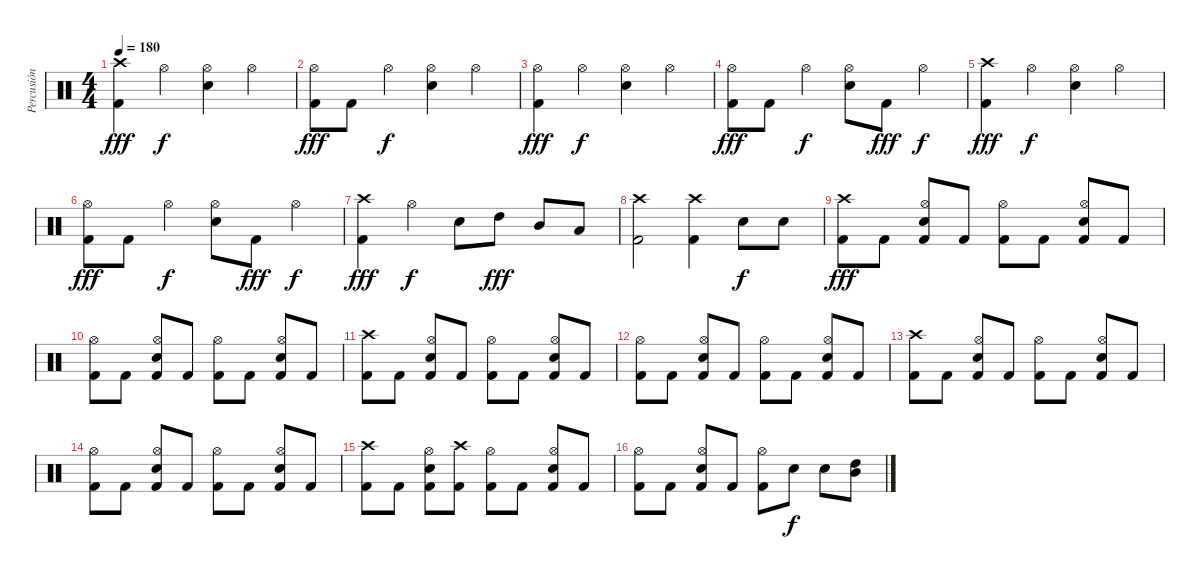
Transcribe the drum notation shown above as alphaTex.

\track ("Percusión" "Percusión") {instrument percussion}
\staff {score}
\articulation defaults
\ts (4 4)
\tempo 180
\clef neutral
\ks c
("Crash high (hit)" "Kick (hit) 2").4{dy fff} "Hi-Hat (open)".4{dy f} ("Hi-Hat (open)" "Electric Snare (hit)").4 "Hi-Hat (open)".4 |
("Hi-Hat (open)" "Kick (hit) 2").8{dy fff} "Kick (hit) 2".8 "Hi-Hat (open)".4{dy f} ("Hi-Hat (open)" "Electric Snare (hit)").4 "Hi-Hat (open)".4 |
("Hi-Hat (open)" "Kick (hit) 2").4{dy fff} "Hi-Hat (open)".4{dy f} ("Hi-Hat (open)" "Electric Snare (hit)").4 "Hi-Hat (open)".4 |
("Hi-Hat (open)" "Kick (hit) 2").8{dy fff} "Kick (hit) 2".8 "Hi-Hat (open)".4{dy f} ("Hi-Hat (open)" "Electric Snare (hit)").8 "Kick (hit) 2".8{dy fff} "Hi-Hat (open)".4{dy f} |
("Crash high (hit)" "Kick (hit) 2").4{dy fff} "Hi-Hat (open)".4{dy f} ("Hi-Hat (open)" "Electric Snare (hit)").4 "Hi-Hat (open)".4 |
("Hi-Hat (open)" "Kick (hit) 2").8{dy fff} "Kick (hit) 2".8 "Hi-Hat (open)".4{dy f} ("Hi-Hat (open)" "Electric Snare (hit)").8 "Kick (hit) 2".8{dy fff} "Hi-Hat (open)".4{dy f} |
("Crash high (hit)" "Kick (hit) 2").4{dy fff} "Hi-Hat (open)".4{dy f} "Electric Snare (hit)".8 "High Tom (hit)".8{dy fff} "Mid Tom (hit)".8 "Low Tom (hit)".8 |
("Crash high (hit)" "Kick (hit) 2").2 ("Crash high (hit)" "Kick (hit) 2").4 "Electric Snare (hit)".8{dy f} "Electric Snare (hit)".8 |
("Crash high (hit)" "Kick (hit) 2").8{dy fff} "Kick (hit) 2".8 ("Hi-Hat (open)" "Electric Snare (hit)" "Kick (hit) 2").8 "Kick (hit) 2".8 ("Hi-Hat (open)" "Kick (hit) 2").8 "Kick (hit) 2".8 ("Hi-Hat (open)" "Electric Snare (hit)" "Kick (hit) 2").8 "Kick (hit) 2".8 |
("Hi-Hat (open)" "Kick (hit) 2").8 "Kick (hit) 2".8 ("Hi-Hat (open)" "Electric Snare (hit)" "Kick (hit) 2").8 "Kick (hit) 2".8 ("Hi-Hat (open)" "Kick (hit) 2").8 "Kick (hit) 2".8 ("Hi-Hat (open)" "Electric Snare (hit)" "Kick (hit) 2").8 "Kick (hit) 2".8 |
("Crash high (hit)" "Kick (hit) 2").8 "Kick (hit) 2".8 ("Hi-Hat (open)" "Electric Snare (hit)" "Kick (hit) 2").8 "Kick (hit) 2".8 ("Hi-Hat (open)" "Kick (hit) 2").8 "Kick (hit) 2".8 ("Hi-Hat (open)" "Electric Snare (hit)" "Kick (hit) 2").8 "Kick (hit) 2".8 |
("Hi-Hat (open)" "Kick (hit) 2").8 "Kick (hit) 2".8 ("Hi-Hat (open)" "Electric Snare (hit)" "Kick (hit) 2").8 "Kick (hit) 2".8 ("Hi-Hat (open)" "Kick (hit) 2").8 "Kick (hit) 2".8 ("Hi-Hat (open)" "Electric Snare (hit)" "Kick (hit) 2").8 "Kick (hit) 2".8 |
("Crash high (hit)" "Kick (hit) 2").8 "Kick (hit) 2".8 ("Hi-Hat (open)" "Electric Snare (hit)" "Kick (hit) 2").8 "Kick (hit) 2".8 ("Hi-Hat (open)" "Kick (hit) 2").8 "Kick (hit) 2".8 ("Hi-Hat (open)" "Electric Snare (hit)" "Kick (hit) 2").8 "Kick (hit) 2".8 |
("Hi-Hat (open)" "Kick (hit) 2").8 "Kick (hit) 2".8 ("Hi-Hat (open)" "Electric Snare (hit)" "Kick (hit) 2").8 "Kick (hit) 2".8 ("Hi-Hat (open)" "Kick (hit) 2").8 "Kick (hit) 2".8 ("Hi-Hat (open)" "Electric Snare (hit)" "Kick (hit) 2").8 "Kick (hit) 2".8 |
("Crash high (hit)" "Kick (hit) 2").8 "Kick (hit) 2".8 ("Hi-Hat (open)" "Electric Snare (hit)" "Kick (hit) 2").8 ("Crash high (hit)" "Kick (hit) 2").8 ("Hi-Hat (open)" "Kick (hit) 2").8 "Kick (hit) 2".8 ("Hi-Hat (open)" "Electric Snare (hit)" "Kick (hit) 2").8 "Kick (hit) 2".8 |
("Hi-Hat (open)" "Kick (hit) 2").8 "Kick (hit) 2".8 ("Hi-Hat (open)" "Electric Snare (hit)" "Kick (hit) 2").8 "Kick (hit) 2".8 ("Hi-Hat (open)" "Kick (hit) 2").8 "Electric Snare (hit)".8{dy f} "Electric Snare (hit)".8 ("Mid Tom (hit)" "High Tom (hit)").8
